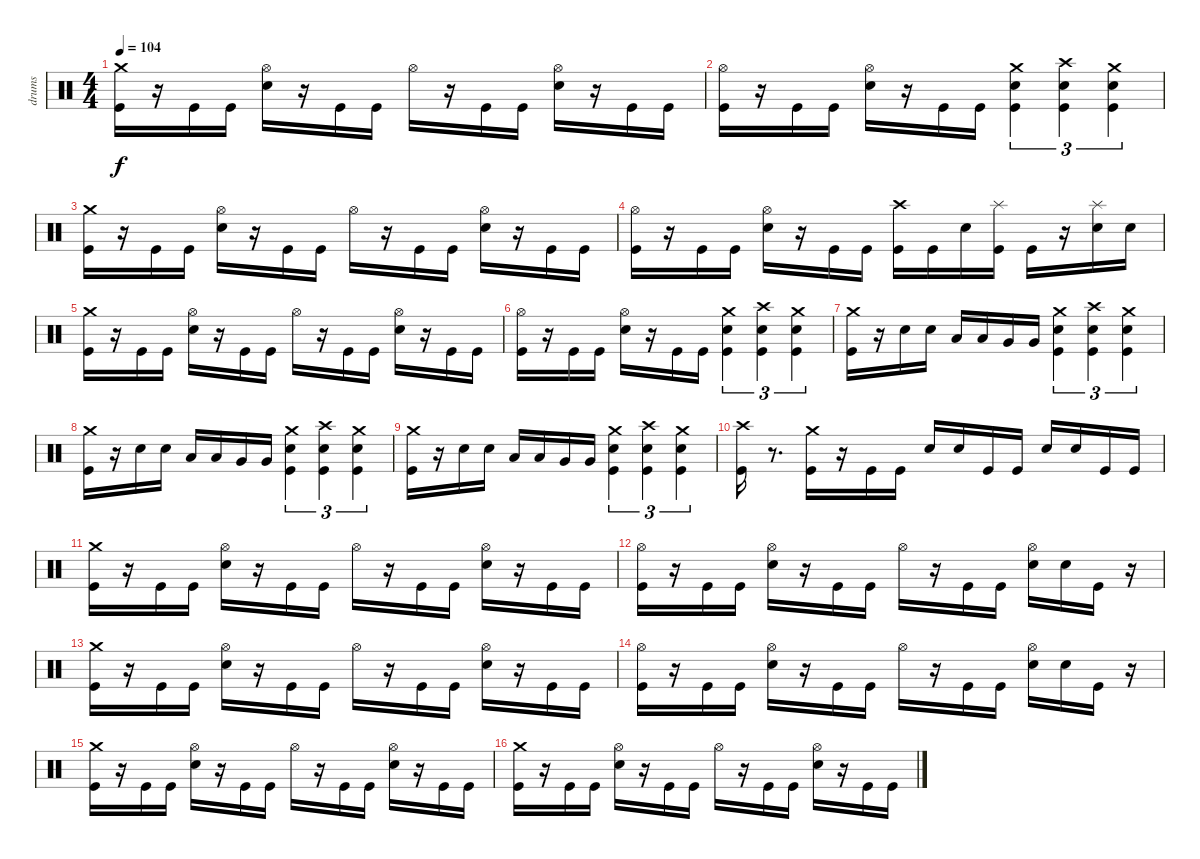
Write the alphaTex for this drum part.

\track ("drums" "drums") {instrument percussion}
\staff {score}
\articulation defaults
\ts (4 4)
\tempo 104
\clef neutral
\ks c
("Crash medium (hit)" "Kick (hit)").16{dy f} r.16 "Kick (hit)".16 "Kick (hit)".16 ("Hi-Hat (open)" "Electric Snare (hit)").16 r.16 "Kick (hit)".16 "Kick (hit)".16 "Hi-Hat (open)".16 r.16 "Kick (hit)".16 "Kick (hit)".16 ("Hi-Hat (open)" "Electric Snare (hit)").16 r.16 "Kick (hit)".16 "Kick (hit)".16 |
("Hi-Hat (open)" "Kick (hit)").16 r.16 "Kick (hit)".16 "Kick (hit)".16 ("Hi-Hat (open)" "Electric Snare (hit)").16 r.16 "Kick (hit)".16 "Kick (hit)".16 ("Snare (hit) 2" "Kick (hit)" "Crash medium (hit)").4{tu (3 2)} ("Snare (hit) 2" "Kick (hit)" "Crash high (hit)").4{tu (3 2)} ("Snare (hit) 2" "Kick (hit)" "Crash medium (hit)").4{tu (3 2)} |
("Crash medium (hit)" "Kick (hit)").16 r.16 "Kick (hit)".16 "Kick (hit)".16 ("Hi-Hat (open)" "Electric Snare (hit)").16 r.16 "Kick (hit)".16 "Kick (hit)".16 "Hi-Hat (open)".16 r.16 "Kick (hit)".16 "Kick (hit)".16 ("Hi-Hat (open)" "Electric Snare (hit)").16 r.16 "Kick (hit)".16 "Kick (hit)".16 |
("Hi-Hat (open)" "Kick (hit)").16 r.16 "Kick (hit)".16 "Kick (hit)".16 ("Hi-Hat (open)" "Electric Snare (hit)").16 r.16 "Kick (hit)".16 "Kick (hit)".16 ("Kick (hit)" "Crash high (hit)").16 "Kick (hit)".16 "Electric Snare (hit)".16 ("Kick (hit)" "Splash (hit)").16 "Kick (hit)".16 r.16 ("Splash (hit)" "Electric Snare (hit)").16 "Electric Snare (hit)".16 |
("Crash medium (hit)" "Kick (hit)").16 r.16 "Kick (hit)".16 "Kick (hit)".16 ("Hi-Hat (open)" "Electric Snare (hit)").16 r.16 "Kick (hit)".16 "Kick (hit)".16 "Hi-Hat (open)".16 r.16 "Kick (hit)".16 "Kick (hit)".16 ("Hi-Hat (open)" "Electric Snare (hit)").16 r.16 "Kick (hit)".16 "Kick (hit)".16 |
("Hi-Hat (open)" "Kick (hit)").16 r.16 "Kick (hit)".16 "Kick (hit)".16 ("Hi-Hat (open)" "Electric Snare (hit)").16 r.16 "Kick (hit)".16 "Kick (hit)".16 ("Snare (hit) 2" "Kick (hit)" "Crash medium (hit)").4{tu (3 2)} ("Snare (hit) 2" "Kick (hit)" "Crash high (hit)").4{tu (3 2)} ("Snare (hit) 2" "Kick (hit)" "Crash medium (hit)").4{tu (3 2)} |
("Crash medium (hit)" "Kick (hit)").16 r.16 "Snare (hit) 2".16 "Electric Snare (hit)".16 "Low Tom (hit)".16 "Low Tom (hit)".16 "Very Low Tom (hit)".16 "Very Low Tom (hit)".16 ("Snare (hit) 2" "Kick (hit)" "Crash medium (hit)").4{tu (3 2)} ("Snare (hit) 2" "Kick (hit)" "Crash high (hit)").4{tu (3 2)} ("Snare (hit) 2" "Kick (hit)" "Crash medium (hit)").4{tu (3 2)} |
("Crash medium (hit)" "Kick (hit)").16 r.16 "Snare (hit) 2".16 "Electric Snare (hit)".16 "Low Tom (hit)".16 "Low Tom (hit)".16 "Very Low Tom (hit)".16 "Very Low Tom (hit)".16 ("Snare (hit) 2" "Kick (hit)" "Crash medium (hit)").4{tu (3 2)} ("Snare (hit) 2" "Kick (hit)" "Crash high (hit)").4{tu (3 2)} ("Snare (hit) 2" "Kick (hit)" "Crash medium (hit)").4{tu (3 2)} |
("Crash medium (hit)" "Kick (hit)").16 r.16 "Snare (hit) 2".16 "Electric Snare (hit)".16 "Low Tom (hit)".16 "Low Tom (hit)".16 "Very Low Tom (hit)".16 "Very Low Tom (hit)".16 ("Snare (hit) 2" "Kick (hit)" "Crash medium (hit)").4{tu (3 2)} ("Snare (hit) 2" "Kick (hit)" "Crash high (hit)").4{tu (3 2)} ("Snare (hit) 2" "Kick (hit)" "Crash medium (hit)").4{tu (3 2)} |
("Crash high (hit)" "Kick (hit)").16 r.8{d} ("Crash medium (hit)" "Kick (hit)").16 r.16 "Kick (hit)".16 "Kick (hit)".16 "Electric Snare (hit)".16 "Electric Snare (hit)".16 "Kick (hit)".16 "Kick (hit)".16 "Electric Snare (hit)".16 "Snare (hit) 2".16 "Kick (hit)".16 "Kick (hit)".16 |
("Crash medium (hit)" "Kick (hit)").16 r.16 "Kick (hit)".16 "Kick (hit)".16 ("Hi-Hat (open)" "Electric Snare (hit)").16 r.16 "Kick (hit)".16 "Kick (hit)".16 "Hi-Hat (open)".16 r.16 "Kick (hit)".16 "Kick (hit)".16 ("Hi-Hat (open)" "Electric Snare (hit)").16 r.16 "Kick (hit)".16 "Kick (hit)".16 |
("Hi-Hat (open)" "Kick (hit)").16 r.16 "Kick (hit)".16 "Kick (hit)".16 ("Hi-Hat (open)" "Electric Snare (hit)").16 r.16 "Kick (hit)".16 "Kick (hit)".16 "Hi-Hat (open)".16 r.16 "Kick (hit)".16 "Kick (hit)".16 ("Hi-Hat (open)" "Electric Snare (hit)").16 "Electric Snare (hit)".16 "Kick (hit)".16 r.16 |
("Crash medium (hit)" "Kick (hit)").16 r.16 "Kick (hit)".16 "Kick (hit)".16 ("Hi-Hat (open)" "Electric Snare (hit)").16 r.16 "Kick (hit)".16 "Kick (hit)".16 "Hi-Hat (open)".16 r.16 "Kick (hit)".16 "Kick (hit)".16 ("Hi-Hat (open)" "Electric Snare (hit)").16 r.16 "Kick (hit)".16 "Kick (hit)".16 |
("Hi-Hat (open)" "Kick (hit)").16 r.16 "Kick (hit)".16 "Kick (hit)".16 ("Hi-Hat (open)" "Electric Snare (hit)").16 r.16 "Kick (hit)".16 "Kick (hit)".16 "Hi-Hat (open)".16 r.16 "Kick (hit)".16 "Kick (hit)".16 ("Hi-Hat (open)" "Electric Snare (hit)").16 "Electric Snare (hit)".16 "Kick (hit)".16 r.16 |
("Crash medium (hit)" "Kick (hit)").16 r.16 "Kick (hit)".16 "Kick (hit)".16 ("Hi-Hat (open)" "Electric Snare (hit)").16 r.16 "Kick (hit)".16 "Kick (hit)".16 "Hi-Hat (open)".16 r.16 "Kick (hit)".16 "Kick (hit)".16 ("Hi-Hat (open)" "Electric Snare (hit)").16 r.16 "Kick (hit)".16 "Kick (hit)".16 |
("Crash medium (hit)" "Kick (hit)").16 r.16 "Kick (hit)".16 "Kick (hit)".16 ("Hi-Hat (open)" "Electric Snare (hit)").16 r.16 "Kick (hit)".16 "Kick (hit)".16 "Hi-Hat (open)".16 r.16 "Kick (hit)".16 "Kick (hit)".16 ("Hi-Hat (open)" "Electric Snare (hit)").16 r.16 "Kick (hit)".16 "Kick (hit)".16
